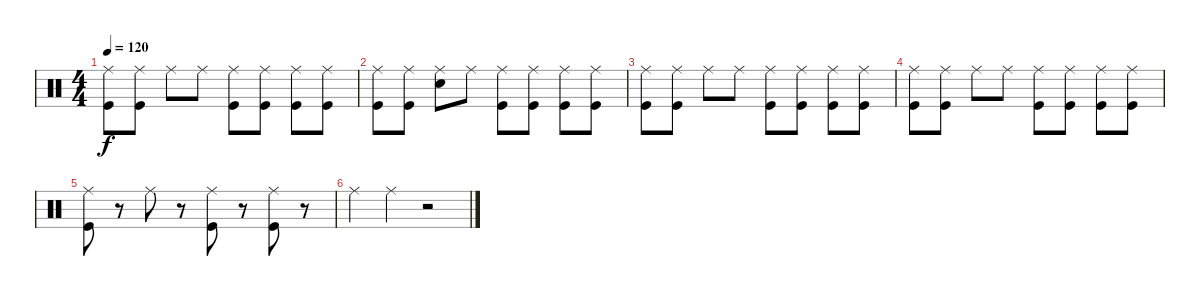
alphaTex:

\track "" {instrument percussion}
\staff {score}
\articulation defaults
\ts (4 4)
\tempo 120
\clef neutral
\ks c
("Ride (middle)" "Kick (hit)").8{dy f} ("Ride (middle)" "Kick (hit)").8 "Ride (middle)".8 "Ride (middle)".8 ("Ride (middle)" "Kick (hit)").8 ("Ride (middle)" "Kick (hit)").8 ("Ride (middle)" "Kick (hit)").8 ("Ride (middle)" "Kick (hit)").8 |
("Ride (middle)" "Kick (hit)").8 ("Ride (middle)" "Kick (hit)").8 ("Ride (middle)" "Snare (hit) 2").8 "Ride (middle)".8 ("Ride (middle)" "Kick (hit)").8 ("Ride (middle)" "Kick (hit)").8 ("Ride (middle)" "Kick (hit)").8 ("Ride (middle)" "Kick (hit)").8 |
("Ride (middle)" "Kick (hit)").8 ("Ride (middle)" "Kick (hit)").8 "Ride (middle)".8 "Ride (middle)".8 ("Ride (middle)" "Kick (hit)").8 ("Ride (middle)" "Kick (hit)").8 ("Ride (middle)" "Kick (hit)").8 ("Ride (middle)" "Kick (hit)").8 |
("Ride (middle)" "Kick (hit)").8 ("Ride (middle)" "Kick (hit)").8 "Ride (middle)".8 "Ride (middle)".8 ("Ride (middle)" "Kick (hit)").8 ("Ride (middle)" "Kick (hit)").8 ("Ride (middle)" "Kick (hit)").8 ("Ride (middle)" "Kick (hit)").8 |
("Ride (middle)" "Kick (hit)").8 r.8 "Ride (middle)".8 r.8 ("Ride (middle)" "Kick (hit)").8 r.8 ("Ride (middle)" "Kick (hit)").8 r.8 |
"Ride (middle)".4 "Ride (middle)".4 r.2
